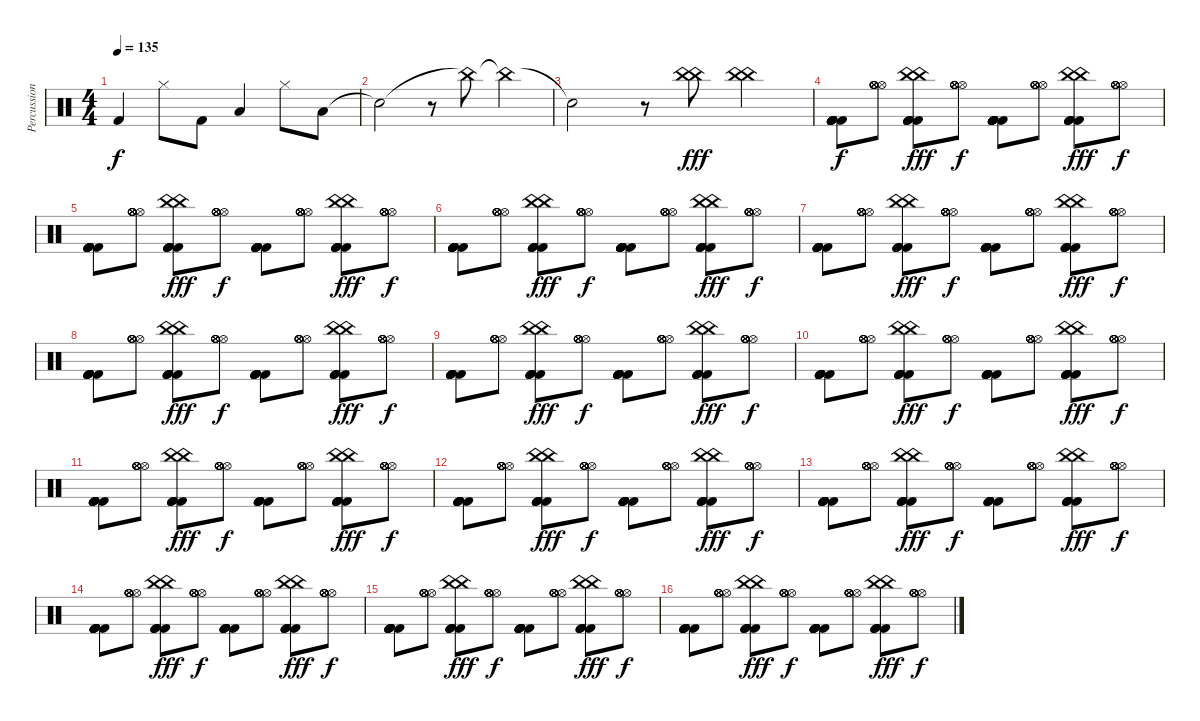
\track ("Percussion" "Percussion") {instrument percussion}
\staff {score}
\articulation defaults
\ts (4 4)
\tempo 135
\clef neutral
\ks c "Kick (hit) 2".4{dy f} "Hi-Hat (closed)".8 "Kick (hit) 2".8 "Low Tom (hit)".4 "Hi-Hat (closed)".8 "Low Floor Tom (hit)".8
|
"Snare (hit)"{t}.2 r.8 "China (hit)"{t}.8 "China (hit)"{t}.4 |
"Snare (hit)"{t}.2 r.8 ("China (hit)" "China (hit)").8{dy fff} ("China (hit)" "China (hit)").4 |
("Kick (hit) 2" "Kick (hit) 2" "Kick (hit) 2" "Kick (hit) 2" "Kick (hit) 2" "Kick (hit) 2").8{dy f} ("Hi-Hat (open)" "Hi-Hat (open)" "Hi-Hat (open)" "Hi-Hat (open)" "Hi-Hat (open)" "Hi-Hat (open)").8 ("China (hit)" "China (hit)" "Kick (hit) 2" "Kick (hit) 2" "Kick (hit) 2" "Kick (hit) 2").8{dy fff} ("Hi-Hat (open)" "Hi-Hat (open)" "Hi-Hat (open)" "Hi-Hat (open)" "Hi-Hat (open)" "Hi-Hat (open)").8{dy f} ("Kick (hit) 2" "Kick (hit) 2" "Kick (hit) 2" "Kick (hit) 2" "Kick (hit) 2" "Kick (hit) 2").8 ("Hi-Hat (open)" "Hi-Hat (open)" "Hi-Hat (open)" "Hi-Hat (open)" "Hi-Hat (open)" "Hi-Hat (open)").8 ("China (hit)" "China (hit)" "Kick (hit) 2" "Kick (hit) 2" "Kick (hit) 2" "Kick (hit) 2").8{dy fff} ("Hi-Hat (open)" "Hi-Hat (open)" "Hi-Hat (open)" "Hi-Hat (open)" "Hi-Hat (open)" "Hi-Hat (open)").8{dy f} |
("Kick (hit) 2" "Kick (hit) 2" "Kick (hit) 2" "Kick (hit) 2" "Kick (hit) 2" "Kick (hit) 2").8 ("Hi-Hat (open)" "Hi-Hat (open)" "Hi-Hat (open)" "Hi-Hat (open)" "Hi-Hat (open)" "Hi-Hat (open)").8 ("China (hit)" "China (hit)" "Kick (hit) 2" "Kick (hit) 2" "Kick (hit) 2" "Kick (hit) 2").8{dy fff} ("Hi-Hat (open)" "Hi-Hat (open)" "Hi-Hat (open)" "Hi-Hat (open)" "Hi-Hat (open)" "Hi-Hat (open)").8{dy f} ("Kick (hit) 2" "Kick (hit) 2" "Kick (hit) 2" "Kick (hit) 2" "Kick (hit) 2" "Kick (hit) 2").8 ("Hi-Hat (open)" "Hi-Hat (open)" "Hi-Hat (open)" "Hi-Hat (open)" "Hi-Hat (open)" "Hi-Hat (open)").8 ("China (hit)" "China (hit)" "Kick (hit) 2" "Kick (hit) 2" "Kick (hit) 2" "Kick (hit) 2").8{dy fff} ("Hi-Hat (open)" "Hi-Hat (open)" "Hi-Hat (open)" "Hi-Hat (open)" "Hi-Hat (open)" "Hi-Hat (open)").8{dy f} |
("Kick (hit) 2" "Kick (hit) 2" "Kick (hit) 2" "Kick (hit) 2" "Kick (hit) 2" "Kick (hit) 2").8 ("Hi-Hat (open)" "Hi-Hat (open)" "Hi-Hat (open)" "Hi-Hat (open)" "Hi-Hat (open)" "Hi-Hat (open)").8 ("China (hit)" "China (hit)" "Kick (hit) 2" "Kick (hit) 2" "Kick (hit) 2" "Kick (hit) 2").8{dy fff} ("Hi-Hat (open)" "Hi-Hat (open)" "Hi-Hat (open)" "Hi-Hat (open)" "Hi-Hat (open)" "Hi-Hat (open)").8{dy f} ("Kick (hit) 2" "Kick (hit) 2" "Kick (hit) 2" "Kick (hit) 2" "Kick (hit) 2" "Kick (hit) 2").8 ("Hi-Hat (open)" "Hi-Hat (open)" "Hi-Hat (open)" "Hi-Hat (open)" "Hi-Hat (open)" "Hi-Hat (open)").8 ("China (hit)" "China (hit)" "Kick (hit) 2" "Kick (hit) 2" "Kick (hit) 2" "Kick (hit) 2").8{dy fff} ("Hi-Hat (open)" "Hi-Hat (open)" "Hi-Hat (open)" "Hi-Hat (open)" "Hi-Hat (open)" "Hi-Hat (open)").8{dy f} |
("Kick (hit) 2" "Kick (hit) 2" "Kick (hit) 2" "Kick (hit) 2" "Kick (hit) 2" "Kick (hit) 2").8 ("Hi-Hat (open)" "Hi-Hat (open)" "Hi-Hat (open)" "Hi-Hat (open)" "Hi-Hat (open)" "Hi-Hat (open)").8 ("China (hit)" "China (hit)" "Kick (hit) 2" "Kick (hit) 2" "Kick (hit) 2" "Kick (hit) 2").8{dy fff} ("Hi-Hat (open)" "Hi-Hat (open)" "Hi-Hat (open)" "Hi-Hat (open)" "Hi-Hat (open)" "Hi-Hat (open)").8{dy f} ("Kick (hit) 2" "Kick (hit) 2" "Kick (hit) 2" "Kick (hit) 2" "Kick (hit) 2" "Kick (hit) 2").8 ("Hi-Hat (open)" "Hi-Hat (open)" "Hi-Hat (open)" "Hi-Hat (open)" "Hi-Hat (open)" "Hi-Hat (open)").8 ("China (hit)" "China (hit)" "Kick (hit) 2" "Kick (hit) 2" "Kick (hit) 2" "Kick (hit) 2").8{dy fff} ("Hi-Hat (open)" "Hi-Hat (open)" "Hi-Hat (open)" "Hi-Hat (open)" "Hi-Hat (open)" "Hi-Hat (open)").8{dy f} |
("Kick (hit) 2" "Kick (hit) 2" "Kick (hit) 2" "Kick (hit) 2" "Kick (hit) 2" "Kick (hit) 2").8 ("Hi-Hat (open)" "Hi-Hat (open)" "Hi-Hat (open)" "Hi-Hat (open)" "Hi-Hat (open)" "Hi-Hat (open)").8 ("China (hit)" "China (hit)" "Kick (hit) 2" "Kick (hit) 2" "Kick (hit) 2" "Kick (hit) 2").8{dy fff} ("Hi-Hat (open)" "Hi-Hat (open)" "Hi-Hat (open)" "Hi-Hat (open)" "Hi-Hat (open)" "Hi-Hat (open)").8{dy f} ("Kick (hit) 2" "Kick (hit) 2" "Kick (hit) 2" "Kick (hit) 2" "Kick (hit) 2" "Kick (hit) 2").8 ("Hi-Hat (open)" "Hi-Hat (open)" "Hi-Hat (open)" "Hi-Hat (open)" "Hi-Hat (open)" "Hi-Hat (open)").8 ("China (hit)" "China (hit)" "Kick (hit) 2" "Kick (hit) 2" "Kick (hit) 2" "Kick (hit) 2").8{dy fff} ("Hi-Hat (open)" "Hi-Hat (open)" "Hi-Hat (open)" "Hi-Hat (open)" "Hi-Hat (open)" "Hi-Hat (open)").8{dy f} |
("Kick (hit) 2" "Kick (hit) 2" "Kick (hit) 2" "Kick (hit) 2" "Kick (hit) 2" "Kick (hit) 2").8 ("Hi-Hat (open)" "Hi-Hat (open)" "Hi-Hat (open)" "Hi-Hat (open)" "Hi-Hat (open)" "Hi-Hat (open)").8 ("China (hit)" "China (hit)" "Kick (hit) 2" "Kick (hit) 2" "Kick (hit) 2" "Kick (hit) 2").8{dy fff} ("Hi-Hat (open)" "Hi-Hat (open)" "Hi-Hat (open)" "Hi-Hat (open)" "Hi-Hat (open)" "Hi-Hat (open)").8{dy f} ("Kick (hit) 2" "Kick (hit) 2" "Kick (hit) 2" "Kick (hit) 2" "Kick (hit) 2" "Kick (hit) 2").8 ("Hi-Hat (open)" "Hi-Hat (open)" "Hi-Hat (open)" "Hi-Hat (open)" "Hi-Hat (open)" "Hi-Hat (open)").8 ("China (hit)" "China (hit)" "Kick (hit) 2" "Kick (hit) 2" "Kick (hit) 2" "Kick (hit) 2").8{dy fff} ("Hi-Hat (open)" "Hi-Hat (open)" "Hi-Hat (open)" "Hi-Hat (open)" "Hi-Hat (open)" "Hi-Hat (open)").8{dy f} |
("Kick (hit) 2" "Kick (hit) 2" "Kick (hit) 2" "Kick (hit) 2" "Kick (hit) 2" "Kick (hit) 2").8 ("Hi-Hat (open)" "Hi-Hat (open)" "Hi-Hat (open)" "Hi-Hat (open)" "Hi-Hat (open)" "Hi-Hat (open)").8 ("China (hit)" "China (hit)" "Kick (hit) 2" "Kick (hit) 2" "Kick (hit) 2" "Kick (hit) 2").8{dy fff} ("Hi-Hat (open)" "Hi-Hat (open)" "Hi-Hat (open)" "Hi-Hat (open)" "Hi-Hat (open)" "Hi-Hat (open)").8{dy f} ("Kick (hit) 2" "Kick (hit) 2" "Kick (hit) 2" "Kick (hit) 2" "Kick (hit) 2" "Kick (hit) 2").8 ("Hi-Hat (open)" "Hi-Hat (open)" "Hi-Hat (open)" "Hi-Hat (open)" "Hi-Hat (open)" "Hi-Hat (open)").8 ("China (hit)" "China (hit)" "Kick (hit) 2" "Kick (hit) 2" "Kick (hit) 2" "Kick (hit) 2").8{dy fff} ("Hi-Hat (open)" "Hi-Hat (open)" "Hi-Hat (open)" "Hi-Hat (open)" "Hi-Hat (open)" "Hi-Hat (open)").8{dy f} |
("Kick (hit) 2" "Kick (hit) 2" "Kick (hit) 2" "Kick (hit) 2" "Kick (hit) 2" "Kick (hit) 2").8 ("Hi-Hat (open)" "Hi-Hat (open)" "Hi-Hat (open)" "Hi-Hat (open)" "Hi-Hat (open)" "Hi-Hat (open)").8 ("China (hit)" "China (hit)" "Kick (hit) 2" "Kick (hit) 2" "Kick (hit) 2" "Kick (hit) 2").8{dy fff} ("Hi-Hat (open)" "Hi-Hat (open)" "Hi-Hat (open)" "Hi-Hat (open)" "Hi-Hat (open)" "Hi-Hat (open)").8{dy f} ("Kick (hit) 2" "Kick (hit) 2" "Kick (hit) 2" "Kick (hit) 2" "Kick (hit) 2" "Kick (hit) 2").8 ("Hi-Hat (open)" "Hi-Hat (open)" "Hi-Hat (open)" "Hi-Hat (open)" "Hi-Hat (open)" "Hi-Hat (open)").8 ("China (hit)" "China (hit)" "Kick (hit) 2" "Kick (hit) 2" "Kick (hit) 2" "Kick (hit) 2").8{dy fff} ("Hi-Hat (open)" "Hi-Hat (open)" "Hi-Hat (open)" "Hi-Hat (open)" "Hi-Hat (open)" "Hi-Hat (open)").8{dy f} |
("Kick (hit) 2" "Kick (hit) 2" "Kick (hit) 2" "Kick (hit) 2" "Kick (hit) 2" "Kick (hit) 2").8 ("Hi-Hat (open)" "Hi-Hat (open)" "Hi-Hat (open)" "Hi-Hat (open)" "Hi-Hat (open)" "Hi-Hat (open)").8 ("China (hit)" "China (hit)" "Kick (hit) 2" "Kick (hit) 2" "Kick (hit) 2" "Kick (hit) 2").8{dy fff} ("Hi-Hat (open)" "Hi-Hat (open)" "Hi-Hat (open)" "Hi-Hat (open)" "Hi-Hat (open)" "Hi-Hat (open)").8{dy f} ("Kick (hit) 2" "Kick (hit) 2" "Kick (hit) 2" "Kick (hit) 2" "Kick (hit) 2" "Kick (hit) 2").8 ("Hi-Hat (open)" "Hi-Hat (open)" "Hi-Hat (open)" "Hi-Hat (open)" "Hi-Hat (open)" "Hi-Hat (open)").8 ("China (hit)" "China (hit)" "Kick (hit) 2" "Kick (hit) 2" "Kick (hit) 2" "Kick (hit) 2").8{dy fff} ("Hi-Hat (open)" "Hi-Hat (open)" "Hi-Hat (open)" "Hi-Hat (open)" "Hi-Hat (open)" "Hi-Hat (open)").8{dy f} |
("Kick (hit) 2" "Kick (hit) 2" "Kick (hit) 2" "Kick (hit) 2" "Kick (hit) 2" "Kick (hit) 2").8 ("Hi-Hat (open)" "Hi-Hat (open)" "Hi-Hat (open)" "Hi-Hat (open)" "Hi-Hat (open)" "Hi-Hat (open)").8 ("China (hit)" "China (hit)" "Kick (hit) 2" "Kick (hit) 2" "Kick (hit) 2" "Kick (hit) 2").8{dy fff} ("Hi-Hat (open)" "Hi-Hat (open)" "Hi-Hat (open)" "Hi-Hat (open)" "Hi-Hat (open)" "Hi-Hat (open)").8{dy f} ("Kick (hit) 2" "Kick (hit) 2" "Kick (hit) 2" "Kick (hit) 2" "Kick (hit) 2" "Kick (hit) 2").8 ("Hi-Hat (open)" "Hi-Hat (open)" "Hi-Hat (open)" "Hi-Hat (open)" "Hi-Hat (open)" "Hi-Hat (open)").8 ("China (hit)" "China (hit)" "Kick (hit) 2" "Kick (hit) 2" "Kick (hit) 2" "Kick (hit) 2").8{dy fff} ("Hi-Hat (open)" "Hi-Hat (open)" "Hi-Hat (open)" "Hi-Hat (open)" "Hi-Hat (open)" "Hi-Hat (open)").8{dy f} |
("Kick (hit) 2" "Kick (hit) 2" "Kick (hit) 2" "Kick (hit) 2" "Kick (hit) 2" "Kick (hit) 2").8 ("Hi-Hat (open)" "Hi-Hat (open)" "Hi-Hat (open)" "Hi-Hat (open)" "Hi-Hat (open)" "Hi-Hat (open)").8 ("China (hit)" "China (hit)" "Kick (hit) 2" "Kick (hit) 2" "Kick (hit) 2" "Kick (hit) 2").8{dy fff} ("Hi-Hat (open)" "Hi-Hat (open)" "Hi-Hat (open)" "Hi-Hat (open)" "Hi-Hat (open)" "Hi-Hat (open)").8{dy f} ("Kick (hit) 2" "Kick (hit) 2" "Kick (hit) 2" "Kick (hit) 2" "Kick (hit) 2" "Kick (hit) 2").8 ("Hi-Hat (open)" "Hi-Hat (open)" "Hi-Hat (open)" "Hi-Hat (open)" "Hi-Hat (open)" "Hi-Hat (open)").8 ("China (hit)" "China (hit)" "Kick (hit) 2" "Kick (hit) 2" "Kick (hit) 2" "Kick (hit) 2").8{dy fff} ("Hi-Hat (open)" "Hi-Hat (open)" "Hi-Hat (open)" "Hi-Hat (open)" "Hi-Hat (open)" "Hi-Hat (open)").8{dy f} |
("Kick (hit) 2" "Kick (hit) 2" "Kick (hit) 2" "Kick (hit) 2" "Kick (hit) 2" "Kick (hit) 2").8 ("Hi-Hat (open)" "Hi-Hat (open)" "Hi-Hat (open)" "Hi-Hat (open)" "Hi-Hat (open)" "Hi-Hat (open)").8 ("China (hit)" "China (hit)" "Kick (hit) 2" "Kick (hit) 2" "Kick (hit) 2" "Kick (hit) 2").8{dy fff} ("Hi-Hat (open)" "Hi-Hat (open)" "Hi-Hat (open)" "Hi-Hat (open)" "Hi-Hat (open)" "Hi-Hat (open)").8{dy f} ("Kick (hit) 2" "Kick (hit) 2" "Kick (hit) 2" "Kick (hit) 2" "Kick (hit) 2" "Kick (hit) 2").8 ("Hi-Hat (open)" "Hi-Hat (open)" "Hi-Hat (open)" "Hi-Hat (open)" "Hi-Hat (open)" "Hi-Hat (open)").8 ("China (hit)" "China (hit)" "Kick (hit) 2" "Kick (hit) 2" "Kick (hit) 2" "Kick (hit) 2").8{dy fff} ("Hi-Hat (open)" "Hi-Hat (open)" "Hi-Hat (open)" "Hi-Hat (open)" "Hi-Hat (open)" "Hi-Hat (open)").8{dy f} |
("Kick (hit) 2" "Kick (hit) 2" "Kick (hit) 2" "Kick (hit) 2" "Kick (hit) 2" "Kick (hit) 2").8 ("Hi-Hat (open)" "Hi-Hat (open)" "Hi-Hat (open)" "Hi-Hat (open)" "Hi-Hat (open)" "Hi-Hat (open)").8 ("China (hit)" "China (hit)" "Kick (hit) 2" "Kick (hit) 2" "Kick (hit) 2" "Kick (hit) 2").8{dy fff} ("Hi-Hat (open)" "Hi-Hat (open)" "Hi-Hat (open)" "Hi-Hat (open)" "Hi-Hat (open)" "Hi-Hat (open)").8{dy f} ("Kick (hit) 2" "Kick (hit) 2" "Kick (hit) 2" "Kick (hit) 2" "Kick (hit) 2" "Kick (hit) 2").8 ("Hi-Hat (open)" "Hi-Hat (open)" "Hi-Hat (open)" "Hi-Hat (open)" "Hi-Hat (open)" "Hi-Hat (open)").8 ("China (hit)" "China (hit)" "Kick (hit) 2" "Kick (hit) 2" "Kick (hit) 2" "Kick (hit) 2").8{dy fff} ("Hi-Hat (open)" "Hi-Hat (open)" "Hi-Hat (open)" "Hi-Hat (open)" "Hi-Hat (open)" "Hi-Hat (open)").8{dy f}
